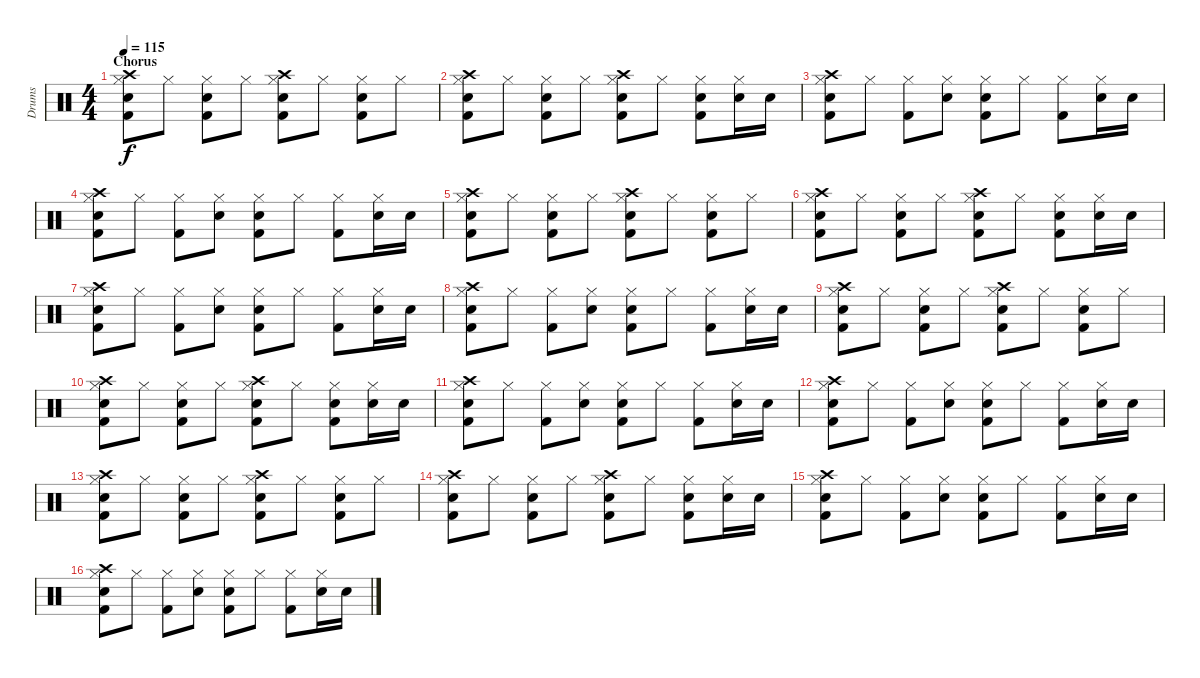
\track ("Drums" "Drums") {instrument percussion}
\staff {score}
\articulation defaults
\ts (4 4)
\section ("" "Chorus")
\tempo 115
\clef neutral
\ks c
("Hi-Hat (closed)" "Kick (hit) 2" "Snare (hit) 2" "Crash high (hit)").8{dy f} "Hi-Hat (closed)".8 ("Hi-Hat (closed)" "Kick (hit) 2" "Snare (hit) 2").8 "Hi-Hat (closed)".8 ("Hi-Hat (closed)" "Kick (hit) 2" "Snare (hit) 2" "Crash high (hit)").8 "Hi-Hat (closed)".8 ("Hi-Hat (closed)" "Kick (hit) 2" "Snare (hit) 2").8 "Hi-Hat (closed)".8 |
("Hi-Hat (closed)" "Kick (hit) 2" "Snare (hit) 2" "Crash high (hit)").8 "Hi-Hat (closed)".8 ("Hi-Hat (closed)" "Kick (hit) 2" "Snare (hit) 2").8 "Hi-Hat (closed)".8 ("Hi-Hat (closed)" "Kick (hit) 2" "Snare (hit) 2" "Crash high (hit)").8 "Hi-Hat (closed)".8 ("Hi-Hat (closed)" "Kick (hit) 2" "Snare (hit) 2").8 ("Hi-Hat (closed)" "Snare (hit) 2").16 "Snare (hit) 2".16 |
("Hi-Hat (closed)" "Kick (hit) 2" "Snare (hit) 2" "Crash high (hit)").8 "Hi-Hat (closed)".8 ("Hi-Hat (closed)" "Kick (hit) 2").8 ("Hi-Hat (closed)" "Snare (hit) 2").8 ("Hi-Hat (closed)" "Kick (hit) 2" "Snare (hit) 2").8 "Hi-Hat (closed)".8 ("Hi-Hat (closed)" "Kick (hit) 2").8 ("Hi-Hat (closed)" "Snare (hit) 2").16 "Snare (hit) 2".16 |
("Hi-Hat (closed)" "Kick (hit) 2" "Snare (hit) 2" "Crash high (hit)").8 "Hi-Hat (closed)".8 ("Hi-Hat (closed)" "Kick (hit) 2").8 ("Hi-Hat (closed)" "Snare (hit) 2").8 ("Hi-Hat (closed)" "Kick (hit) 2" "Snare (hit) 2").8 "Hi-Hat (closed)".8 ("Hi-Hat (closed)" "Kick (hit) 2").8 ("Hi-Hat (closed)" "Snare (hit) 2").16 "Snare (hit) 2".16 |
("Hi-Hat (closed)" "Kick (hit) 2" "Snare (hit) 2" "Crash high (hit)").8 "Hi-Hat (closed)".8 ("Hi-Hat (closed)" "Kick (hit) 2" "Snare (hit) 2").8 "Hi-Hat (closed)".8 ("Hi-Hat (closed)" "Kick (hit) 2" "Snare (hit) 2" "Crash high (hit)").8 "Hi-Hat (closed)".8 ("Hi-Hat (closed)" "Kick (hit) 2" "Snare (hit) 2").8 "Hi-Hat (closed)".8 |
("Hi-Hat (closed)" "Kick (hit) 2" "Snare (hit) 2" "Crash high (hit)").8 "Hi-Hat (closed)".8 ("Hi-Hat (closed)" "Kick (hit) 2" "Snare (hit) 2").8 "Hi-Hat (closed)".8 ("Hi-Hat (closed)" "Kick (hit) 2" "Snare (hit) 2" "Crash high (hit)").8 "Hi-Hat (closed)".8 ("Hi-Hat (closed)" "Kick (hit) 2" "Snare (hit) 2").8 ("Hi-Hat (closed)" "Snare (hit) 2").16 "Snare (hit) 2".16 |
("Hi-Hat (closed)" "Kick (hit) 2" "Snare (hit) 2" "Crash high (hit)").8 "Hi-Hat (closed)".8 ("Hi-Hat (closed)" "Kick (hit) 2").8 ("Hi-Hat (closed)" "Snare (hit) 2").8 ("Hi-Hat (closed)" "Kick (hit) 2" "Snare (hit) 2").8 "Hi-Hat (closed)".8 ("Hi-Hat (closed)" "Kick (hit) 2").8 ("Hi-Hat (closed)" "Snare (hit) 2").16 "Snare (hit) 2".16 |
("Hi-Hat (closed)" "Kick (hit) 2" "Snare (hit) 2" "Crash high (hit)").8 "Hi-Hat (closed)".8 ("Hi-Hat (closed)" "Kick (hit) 2").8 ("Hi-Hat (closed)" "Snare (hit) 2").8 ("Hi-Hat (closed)" "Kick (hit) 2" "Snare (hit) 2").8 "Hi-Hat (closed)".8 ("Hi-Hat (closed)" "Kick (hit) 2").8 ("Hi-Hat (closed)" "Snare (hit) 2").16 "Snare (hit) 2".16 |
("Hi-Hat (closed)" "Kick (hit) 2" "Snare (hit) 2" "Crash high (hit)").8 "Hi-Hat (closed)".8 ("Hi-Hat (closed)" "Kick (hit) 2" "Snare (hit) 2").8 "Hi-Hat (closed)".8 ("Hi-Hat (closed)" "Kick (hit) 2" "Snare (hit) 2" "Crash high (hit)").8 "Hi-Hat (closed)".8 ("Hi-Hat (closed)" "Kick (hit) 2" "Snare (hit) 2").8 "Hi-Hat (closed)".8 |
("Hi-Hat (closed)" "Kick (hit) 2" "Snare (hit) 2" "Crash high (hit)").8 "Hi-Hat (closed)".8 ("Hi-Hat (closed)" "Kick (hit) 2" "Snare (hit) 2").8 "Hi-Hat (closed)".8 ("Hi-Hat (closed)" "Kick (hit) 2" "Snare (hit) 2" "Crash high (hit)").8 "Hi-Hat (closed)".8 ("Hi-Hat (closed)" "Kick (hit) 2" "Snare (hit) 2").8 ("Hi-Hat (closed)" "Snare (hit) 2").16 "Snare (hit) 2".16 |
("Hi-Hat (closed)" "Kick (hit) 2" "Snare (hit) 2" "Crash high (hit)").8 "Hi-Hat (closed)".8 ("Hi-Hat (closed)" "Kick (hit) 2").8 ("Hi-Hat (closed)" "Snare (hit) 2").8 ("Hi-Hat (closed)" "Kick (hit) 2" "Snare (hit) 2").8 "Hi-Hat (closed)".8 ("Hi-Hat (closed)" "Kick (hit) 2").8 ("Hi-Hat (closed)" "Snare (hit) 2").16 "Snare (hit) 2".16 |
("Hi-Hat (closed)" "Kick (hit) 2" "Snare (hit) 2" "Crash high (hit)").8 "Hi-Hat (closed)".8 ("Hi-Hat (closed)" "Kick (hit) 2").8 ("Hi-Hat (closed)" "Snare (hit) 2").8 ("Hi-Hat (closed)" "Kick (hit) 2" "Snare (hit) 2").8 "Hi-Hat (closed)".8 ("Hi-Hat (closed)" "Kick (hit) 2").8 ("Hi-Hat (closed)" "Snare (hit) 2").16 "Snare (hit) 2".16 |
("Hi-Hat (closed)" "Kick (hit) 2" "Snare (hit) 2" "Crash high (hit)").8 "Hi-Hat (closed)".8 ("Hi-Hat (closed)" "Kick (hit) 2" "Snare (hit) 2").8 "Hi-Hat (closed)".8 ("Hi-Hat (closed)" "Kick (hit) 2" "Snare (hit) 2" "Crash high (hit)").8 "Hi-Hat (closed)".8 ("Hi-Hat (closed)" "Kick (hit) 2" "Snare (hit) 2").8 "Hi-Hat (closed)".8 |
("Hi-Hat (closed)" "Kick (hit) 2" "Snare (hit) 2" "Crash high (hit)").8 "Hi-Hat (closed)".8 ("Hi-Hat (closed)" "Kick (hit) 2" "Snare (hit) 2").8 "Hi-Hat (closed)".8 ("Hi-Hat (closed)" "Kick (hit) 2" "Snare (hit) 2" "Crash high (hit)").8 "Hi-Hat (closed)".8 ("Hi-Hat (closed)" "Kick (hit) 2" "Snare (hit) 2").8 ("Hi-Hat (closed)" "Snare (hit) 2").16 "Snare (hit) 2".16 |
("Hi-Hat (closed)" "Kick (hit) 2" "Snare (hit) 2" "Crash high (hit)").8 "Hi-Hat (closed)".8 ("Hi-Hat (closed)" "Kick (hit) 2").8 ("Hi-Hat (closed)" "Snare (hit) 2").8 ("Hi-Hat (closed)" "Kick (hit) 2" "Snare (hit) 2").8 "Hi-Hat (closed)".8 ("Hi-Hat (closed)" "Kick (hit) 2").8 ("Hi-Hat (closed)" "Snare (hit) 2").16 "Snare (hit) 2".16 |
("Hi-Hat (closed)" "Kick (hit) 2" "Snare (hit) 2" "Crash high (hit)").8 "Hi-Hat (closed)".8 ("Hi-Hat (closed)" "Kick (hit) 2").8 ("Hi-Hat (closed)" "Snare (hit) 2").8 ("Hi-Hat (closed)" "Kick (hit) 2" "Snare (hit) 2").8 "Hi-Hat (closed)".8 ("Hi-Hat (closed)" "Kick (hit) 2").8 ("Hi-Hat (closed)" "Snare (hit) 2").16 "Snare (hit) 2".16
